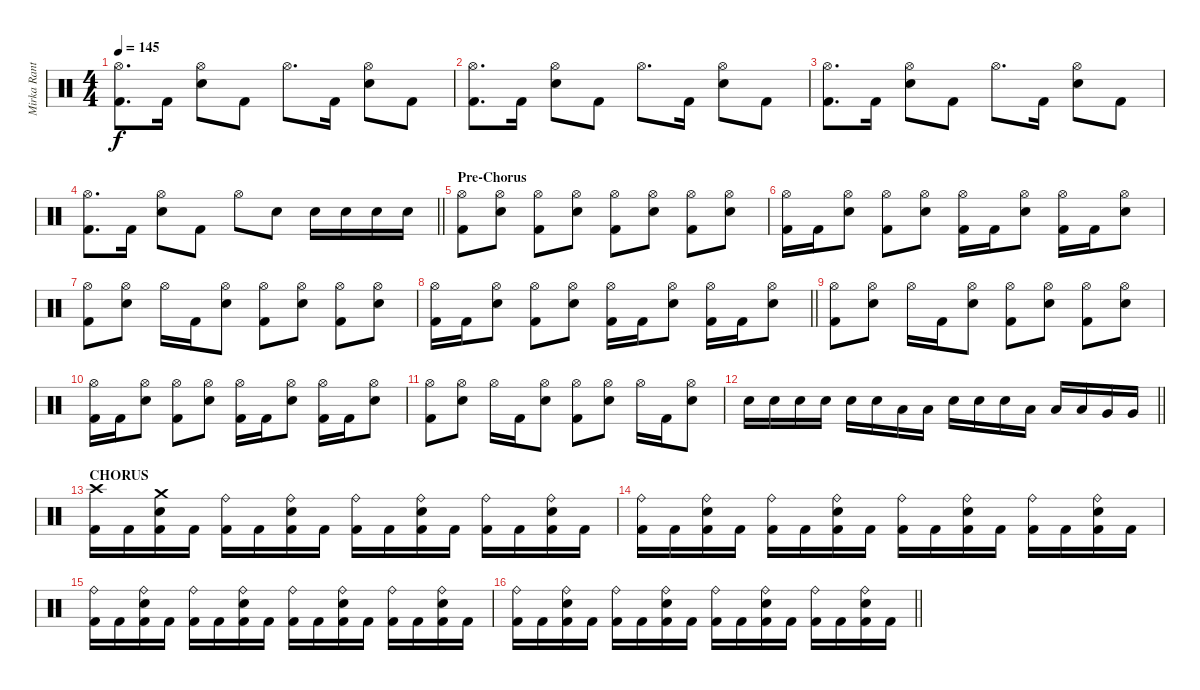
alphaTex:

\track ("Mirka Rantanen" "Mirka Rant") {instrument percussion}
\staff {score}
\articulation defaults
\ts (4 4)
\tempo 145
\clef neutral
\ks c
("Hi-Hat (open)" "Kick (hit) 2").8{d dy f} "Kick (hit) 2".16 ("Hi-Hat (open)" "Electric Snare (hit)").8 "Kick (hit) 2".8 "Hi-Hat (open)".8{d} "Kick (hit) 2".16 ("Hi-Hat (open)" "Electric Snare (hit)").8 "Kick (hit) 2".8 |
("Hi-Hat (open)" "Kick (hit) 2").8{d} "Kick (hit) 2".16 ("Hi-Hat (open)" "Electric Snare (hit)").8 "Kick (hit) 2".8 "Hi-Hat (open)".8{d} "Kick (hit) 2".16 ("Hi-Hat (open)" "Electric Snare (hit)").8 "Kick (hit) 2".8 |
("Hi-Hat (open)" "Kick (hit) 2").8{d} "Kick (hit) 2".16 ("Hi-Hat (open)" "Electric Snare (hit)").8 "Kick (hit) 2".8 "Hi-Hat (open)".8{d} "Kick (hit) 2".16 ("Hi-Hat (open)" "Electric Snare (hit)").8 "Kick (hit) 2".8 |
\barLineRight lightlight
("Hi-Hat (open)" "Kick (hit) 2").8{d} "Kick (hit) 2".16 ("Hi-Hat (open)" "Electric Snare (hit)").8 "Kick (hit) 2".8 "Hi-Hat (open)".8 "Electric Snare (hit)".8 "Electric Snare (hit)".16 "Electric Snare (hit)".16 "Electric Snare (hit)".16 "Electric Snare (hit)".16 |
\section ("" "Pre-Chorus")
("Hi-Hat (open)" "Kick (hit) 2").8 ("Hi-Hat (open)" "Electric Snare (hit)").8 ("Hi-Hat (open)" "Kick (hit) 2").8 ("Hi-Hat (open)" "Electric Snare (hit)").8 ("Hi-Hat (open)" "Kick (hit) 2").8 ("Hi-Hat (open)" "Electric Snare (hit)").8 ("Hi-Hat (open)" "Kick (hit) 2").8 ("Hi-Hat (open)" "Electric Snare (hit)").8 |
("Hi-Hat (open)" "Kick (hit) 2").16 "Kick (hit) 2".16 ("Hi-Hat (open)" "Electric Snare (hit)").8 ("Hi-Hat (open)" "Kick (hit) 2").8 ("Hi-Hat (open)" "Electric Snare (hit)").8 ("Hi-Hat (open)" "Kick (hit) 2").16 "Kick (hit) 2".16 ("Hi-Hat (open)" "Electric Snare (hit)").8 ("Hi-Hat (open)" "Kick (hit) 2").16 "Kick (hit) 2".16 ("Hi-Hat (open)" "Electric Snare (hit)").8 |
("Hi-Hat (open)" "Kick (hit) 2").8 ("Hi-Hat (open)" "Electric Snare (hit)").8 "Hi-Hat (open)".16 "Kick (hit) 2".16 ("Hi-Hat (open)" "Electric Snare (hit)").8 ("Hi-Hat (open)" "Kick (hit) 2").8 ("Hi-Hat (open)" "Electric Snare (hit)").8 ("Hi-Hat (open)" "Kick (hit) 2").8 ("Hi-Hat (open)" "Electric Snare (hit)").8 |
\barLineRight lightlight
("Hi-Hat (open)" "Kick (hit) 2").16 "Kick (hit) 2".16 ("Hi-Hat (open)" "Electric Snare (hit)").8 ("Hi-Hat (open)" "Kick (hit) 2").8 ("Hi-Hat (open)" "Electric Snare (hit)").8 ("Hi-Hat (open)" "Kick (hit) 2").16 "Kick (hit) 2".16 ("Hi-Hat (open)" "Electric Snare (hit)").8 ("Hi-Hat (open)" "Kick (hit) 2").16 "Kick (hit) 2".16 ("Hi-Hat (open)" "Electric Snare (hit)").8 |
("Hi-Hat (open)" "Kick (hit) 2").8 ("Hi-Hat (open)" "Electric Snare (hit)").8 "Hi-Hat (open)".16 "Kick (hit) 2".16 ("Hi-Hat (open)" "Electric Snare (hit)").8 ("Hi-Hat (open)" "Kick (hit) 2").8 ("Hi-Hat (open)" "Electric Snare (hit)").8 ("Hi-Hat (open)" "Kick (hit) 2").8 ("Hi-Hat (open)" "Electric Snare (hit)").8 |
("Hi-Hat (open)" "Kick (hit) 2").16 "Kick (hit) 2".16 ("Hi-Hat (open)" "Electric Snare (hit)").8 ("Hi-Hat (open)" "Kick (hit) 2").8 ("Hi-Hat (open)" "Electric Snare (hit)").8 ("Hi-Hat (open)" "Kick (hit) 2").16 "Kick (hit) 2".16 ("Hi-Hat (open)" "Electric Snare (hit)").8 ("Hi-Hat (open)" "Kick (hit) 2").16 "Kick (hit) 2".16 ("Hi-Hat (open)" "Electric Snare (hit)").8 |
("Hi-Hat (open)" "Kick (hit) 2").8 ("Hi-Hat (open)" "Electric Snare (hit)").8 "Hi-Hat (open)".16 "Kick (hit) 2".16 ("Hi-Hat (open)" "Electric Snare (hit)").8 ("Hi-Hat (open)" "Kick (hit) 2").8 ("Hi-Hat (open)" "Electric Snare (hit)").8 "Hi-Hat (open)".16 "Kick (hit) 2".16 ("Hi-Hat (open)" "Electric Snare (hit)").8 |
\barLineRight lightlight "Electric Snare (hit)".16 "Electric Snare (hit)".16 "Electric Snare (hit)".16 "Electric Snare (hit)".16 "Electric Snare (hit)".16 "Electric Snare (hit)".16 "Low Tom (hit)".16 "Low Tom (hit)".16 "Electric Snare (hit)".16 "Electric Snare (hit)".16 "Electric Snare (hit)".16 "Low Tom (hit)".16 "Low Tom (hit)".16 "Low Tom (hit)".16 "Very Low Tom (hit)".16 "Very Low Tom (hit)".16
|
\section ("" "CHORUS")
("Crash high (hit)" "Kick (hit) 2").16 "Kick (hit) 2".16 ("Crash medium (hit)" "Electric Snare (hit)" "Kick (hit) 2").16 "Kick (hit) 2".16 ("Ride (bell)" "Kick (hit) 2").16 "Kick (hit) 2".16 ("Ride (bell)" "Electric Snare (hit)" "Kick (hit) 2").16 "Kick (hit) 2".16 ("Ride (bell)" "Kick (hit) 2").16 "Kick (hit) 2".16 ("Ride (bell)" "Electric Snare (hit)" "Kick (hit) 2").16 "Kick (hit) 2".16 ("Ride (bell)" "Kick (hit) 2").16 "Kick (hit) 2".16 ("Ride (bell)" "Electric Snare (hit)" "Kick (hit) 2").16 "Kick (hit) 2".16 |
("Ride (bell)" "Kick (hit) 2").16 "Kick (hit) 2".16 ("Ride (bell)" "Electric Snare (hit)" "Kick (hit) 2").16 "Kick (hit) 2".16 ("Ride (bell)" "Kick (hit) 2").16 "Kick (hit) 2".16 ("Ride (bell)" "Electric Snare (hit)" "Kick (hit) 2").16 "Kick (hit) 2".16 ("Ride (bell)" "Kick (hit) 2").16 "Kick (hit) 2".16 ("Ride (bell)" "Electric Snare (hit)" "Kick (hit) 2").16 "Kick (hit) 2".16 ("Ride (bell)" "Kick (hit) 2").16 "Kick (hit) 2".16 ("Ride (bell)" "Electric Snare (hit)" "Kick (hit) 2").16 "Kick (hit) 2".16 |
("Ride (bell)" "Kick (hit) 2").16 "Kick (hit) 2".16 ("Ride (bell)" "Electric Snare (hit)" "Kick (hit) 2").16 "Kick (hit) 2".16 ("Ride (bell)" "Kick (hit) 2").16 "Kick (hit) 2".16 ("Ride (bell)" "Electric Snare (hit)" "Kick (hit) 2").16 "Kick (hit) 2".16 ("Ride (bell)" "Kick (hit) 2").16 "Kick (hit) 2".16 ("Ride (bell)" "Electric Snare (hit)" "Kick (hit) 2").16 "Kick (hit) 2".16 ("Ride (bell)" "Kick (hit) 2").16 "Kick (hit) 2".16 ("Ride (bell)" "Electric Snare (hit)" "Kick (hit) 2").16 "Kick (hit) 2".16 |
\barLineRight lightlight
("Ride (bell)" "Kick (hit) 2").16 "Kick (hit) 2".16 ("Ride (bell)" "Electric Snare (hit)" "Kick (hit) 2").16 "Kick (hit) 2".16 ("Ride (bell)" "Kick (hit) 2").16 "Kick (hit) 2".16 ("Ride (bell)" "Electric Snare (hit)" "Kick (hit) 2").16 "Kick (hit) 2".16 ("Ride (bell)" "Kick (hit) 2").16 "Kick (hit) 2".16 ("Ride (bell)" "Electric Snare (hit)" "Kick (hit) 2").16 "Kick (hit) 2".16 ("Ride (bell)" "Kick (hit) 2").16 "Kick (hit) 2".16 ("Ride (bell)" "Electric Snare (hit)" "Kick (hit) 2").16 "Kick (hit) 2".16
